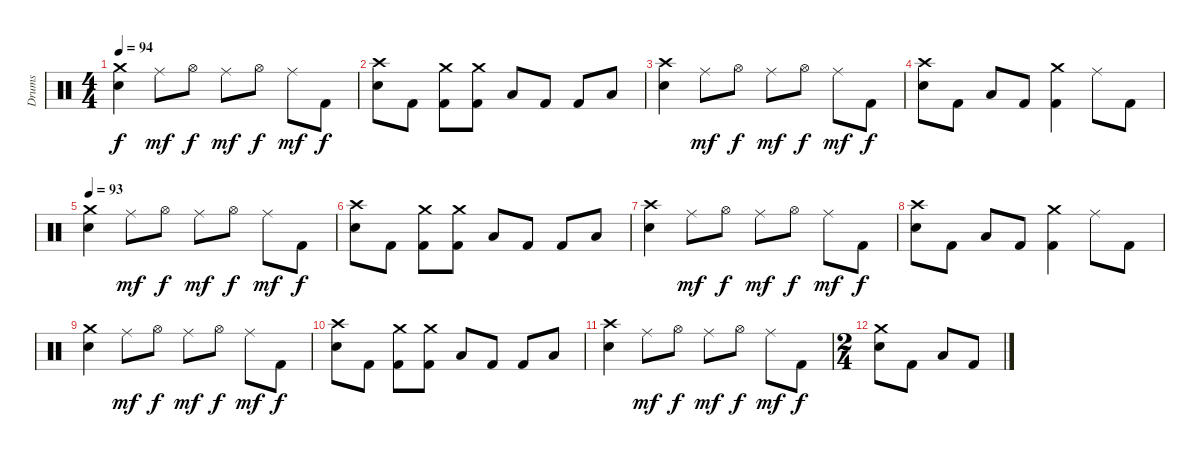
\track ("Drums" "Drums") {instrument percussion}
\staff {score}
\articulation defaults
\ts (4 4)
\tempo 94
\clef neutral
\ks c
("Crash medium (hit)" "Electric Snare (hit)").4{dy f} "Ride (middle)".8{dy mf} "Hi-Hat (open)".8{dy f} "Ride (middle)".8{dy mf} "Hi-Hat (open)".8{dy f} "Ride (middle)".8{dy mf} "Kick (hit) 2".8{dy f} |
("Crash high (hit)" "Electric Snare (hit)").8 "Kick (hit) 2".8 ("Crash medium (hit)" "Kick (hit) 2").8 ("Crash medium (hit)" "Kick (hit) 2").8 "Low Tom (hit)".8 "Kick (hit) 2".8 "Kick (hit) 2".8 "Low Tom (hit)".8 |
("Crash high (hit)" "Electric Snare (hit)").4 "Ride (middle)".8{dy mf} "Hi-Hat (open)".8{dy f} "Ride (middle)".8{dy mf} "Hi-Hat (open)".8{dy f} "Ride (middle)".8{dy mf} "Kick (hit) 2".8{dy f} |
("Crash high (hit)" "Electric Snare (hit)").8 "Kick (hit) 2".8 "Low Tom (hit)".8 "Kick (hit) 2".8 ("Crash medium (hit)" "Kick (hit) 2").4 "Ride (middle)".8 "Kick (hit) 2".8 |
\tempo 93
("Crash medium (hit)" "Electric Snare (hit)").4 "Ride (middle)".8{dy mf} "Hi-Hat (open)".8{dy f} "Ride (middle)".8{dy mf} "Hi-Hat (open)".8{dy f} "Ride (middle)".8{dy mf} "Kick (hit) 2".8{dy f} |
("Crash high (hit)" "Electric Snare (hit)").8 "Kick (hit) 2".8 ("Crash medium (hit)" "Kick (hit) 2").8 ("Crash medium (hit)" "Kick (hit) 2").8 "Low Tom (hit)".8 "Kick (hit) 2".8 "Kick (hit) 2".8 "Low Tom (hit)".8 |
("Crash high (hit)" "Electric Snare (hit)").4 "Ride (middle)".8{dy mf} "Hi-Hat (open)".8{dy f} "Ride (middle)".8{dy mf} "Hi-Hat (open)".8{dy f} "Ride (middle)".8{dy mf} "Kick (hit) 2".8{dy f} |
("Crash high (hit)" "Electric Snare (hit)").8 "Kick (hit) 2".8 "Low Tom (hit)".8 "Kick (hit) 2".8 ("Crash medium (hit)" "Kick (hit) 2").4 "Ride (middle)".8 "Kick (hit) 2".8 |
("Crash medium (hit)" "Electric Snare (hit)").4 "Ride (middle)".8{dy mf} "Hi-Hat (open)".8{dy f} "Ride (middle)".8{dy mf} "Hi-Hat (open)".8{dy f} "Ride (middle)".8{dy mf} "Kick (hit) 2".8{dy f} |
("Crash high (hit)" "Electric Snare (hit)").8 "Kick (hit) 2".8 ("Crash medium (hit)" "Kick (hit) 2").8 ("Crash medium (hit)" "Kick (hit) 2").8 "Low Tom (hit)".8 "Kick (hit) 2".8 "Kick (hit) 2".8 "Low Tom (hit)".8 |
("Crash high (hit)" "Electric Snare (hit)").4 "Ride (middle)".8{dy mf} "Hi-Hat (open)".8{dy f} "Ride (middle)".8{dy mf} "Hi-Hat (open)".8{dy f} "Ride (middle)".8{dy mf} "Kick (hit) 2".8{dy f} |
\ts (2 4)
("Crash medium (hit)" "Electric Snare (hit)").8 "Kick (hit) 2".8 "Low Tom (hit)".8 "Kick (hit) 2".8
